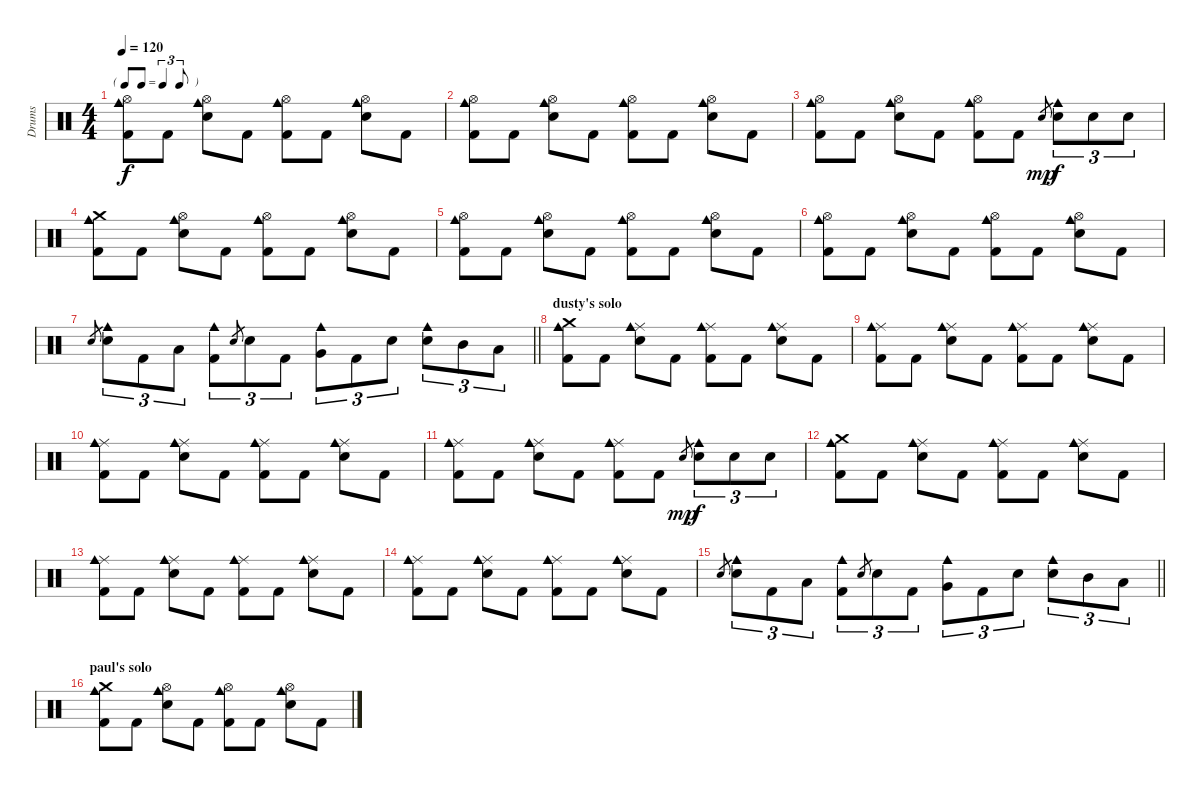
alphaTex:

\track ("Drums" "Drums") {instrument percussion}
\staff {score}
\articulation defaults
\ts (4 4)
\tf triplet8th
\tempo 120
\clef neutral
\ks c
("Hi-Hat (open)" "Cowbell medium (hit)" "Kick (hit) 2").8{dy f} "Kick (hit) 2".8 ("Hi-Hat (open)" "Cowbell medium (hit)" "Electric Snare (hit)").8 "Kick (hit) 2".8 ("Hi-Hat (open)" "Cowbell medium (hit)" "Kick (hit) 2").8 "Kick (hit) 2".8 ("Hi-Hat (open)" "Cowbell medium (hit)" "Electric Snare (hit)").8 "Kick (hit) 2".8 |
("Hi-Hat (open)" "Cowbell medium (hit)" "Kick (hit) 2").8 "Kick (hit) 2".8 ("Hi-Hat (open)" "Cowbell medium (hit)" "Electric Snare (hit)").8 "Kick (hit) 2".8 ("Hi-Hat (open)" "Cowbell medium (hit)" "Kick (hit) 2").8 "Kick (hit) 2".8 ("Hi-Hat (open)" "Cowbell medium (hit)" "Electric Snare (hit)").8 "Kick (hit) 2".8 |
("Hi-Hat (open)" "Cowbell medium (hit)" "Kick (hit) 2").8 "Kick (hit) 2".8 ("Hi-Hat (open)" "Cowbell medium (hit)" "Electric Snare (hit)").8 "Kick (hit) 2".8 ("Hi-Hat (open)" "Cowbell medium (hit)" "Kick (hit) 2").8 "Kick (hit) 2".8 "Electric Snare (hit)".8{gr dy mp} ("Cowbell medium (hit)" "Electric Snare (hit)").8{tu (3 2) dy f} "Electric Snare (hit)".8{tu (3 2)} "Electric Snare (hit)".8{tu (3 2)} |
("Crash medium (hit)" "Cowbell medium (hit)" "Kick (hit) 2").8 "Kick (hit) 2".8 ("Hi-Hat (open)" "Cowbell medium (hit)" "Electric Snare (hit)").8 "Kick (hit) 2".8 ("Hi-Hat (open)" "Cowbell medium (hit)" "Kick (hit) 2").8 "Kick (hit) 2".8 ("Hi-Hat (open)" "Cowbell medium (hit)" "Electric Snare (hit)").8 "Kick (hit) 2".8 |
("Hi-Hat (open)" "Cowbell medium (hit)" "Kick (hit) 2").8 "Kick (hit) 2".8 ("Hi-Hat (open)" "Cowbell medium (hit)" "Electric Snare (hit)").8 "Kick (hit) 2".8 ("Hi-Hat (open)" "Cowbell medium (hit)" "Kick (hit) 2").8 "Kick (hit) 2".8 ("Hi-Hat (open)" "Cowbell medium (hit)" "Electric Snare (hit)").8 "Kick (hit) 2".8 |
("Hi-Hat (open)" "Cowbell medium (hit)" "Kick (hit) 2").8 "Kick (hit) 2".8 ("Hi-Hat (open)" "Cowbell medium (hit)" "Electric Snare (hit)").8 "Kick (hit) 2".8 ("Hi-Hat (open)" "Cowbell medium (hit)" "Kick (hit) 2").8 "Kick (hit) 2".8 ("Hi-Hat (open)" "Cowbell medium (hit)" "Electric Snare (hit)").8 "Kick (hit) 2".8 |
\barLineRight lightlight "Electric Snare (hit)".8{gr}
("Cowbell medium (hit)" "Electric Snare (hit)").8{tu (3 2)} "Kick (hit) 2".8{tu (3 2)} "Low Tom (hit)".8{tu (3 2)} ("Cowbell medium (hit)" "Kick (hit) 2").8{tu (3 2)} "Electric Snare (hit)".8{gr} "Electric Snare (hit)".8{tu (3 2)} "Kick (hit) 2".8{tu (3 2)} ("Cowbell medium (hit)" "Very Low Tom (hit)").8{tu (3 2)} "Kick (hit) 2".8{tu (3 2)} "Electric Snare (hit)".8{tu (3 2)} ("Cowbell medium (hit)" "Electric Snare (hit)").8{tu (3 2)} "Mid Tom (hit)".8{tu (3 2)} "Low Tom (hit)".8{tu (3 2)} |
\section ("" "dusty's solo")
("Crash medium (hit)" "Cowbell medium (hit)" "Kick (hit) 2").8 "Kick (hit) 2".8 ("Ride (middle)" "Cowbell medium (hit)" "Electric Snare (hit)").8 "Kick (hit) 2".8 ("Ride (middle)" "Cowbell medium (hit)" "Kick (hit) 2").8 "Kick (hit) 2".8 ("Ride (middle)" "Cowbell medium (hit)" "Electric Snare (hit)").8 "Kick (hit) 2".8 |
("Ride (middle)" "Cowbell medium (hit)" "Kick (hit) 2").8 "Kick (hit) 2".8 ("Ride (middle)" "Cowbell medium (hit)" "Electric Snare (hit)").8 "Kick (hit) 2".8 ("Ride (middle)" "Cowbell medium (hit)" "Kick (hit) 2").8 "Kick (hit) 2".8 ("Ride (middle)" "Cowbell medium (hit)" "Electric Snare (hit)").8 "Kick (hit) 2".8 |
("Ride (middle)" "Cowbell medium (hit)" "Kick (hit) 2").8 "Kick (hit) 2".8 ("Ride (middle)" "Cowbell medium (hit)" "Electric Snare (hit)").8 "Kick (hit) 2".8 ("Ride (middle)" "Cowbell medium (hit)" "Kick (hit) 2").8 "Kick (hit) 2".8 ("Ride (middle)" "Cowbell medium (hit)" "Electric Snare (hit)").8 "Kick (hit) 2".8 |
("Ride (middle)" "Cowbell medium (hit)" "Kick (hit) 2").8 "Kick (hit) 2".8 ("Ride (middle)" "Cowbell medium (hit)" "Electric Snare (hit)").8 "Kick (hit) 2".8 ("Ride (middle)" "Cowbell medium (hit)" "Kick (hit) 2").8 "Kick (hit) 2".8 "Electric Snare (hit)".8{gr dy mp} ("Cowbell medium (hit)" "Electric Snare (hit)").8{tu (3 2) dy f} "Electric Snare (hit)".8{tu (3 2)} "Electric Snare (hit)".8{tu (3 2)} |
("Crash medium (hit)" "Cowbell medium (hit)" "Kick (hit) 2").8 "Kick (hit) 2".8 ("Ride (middle)" "Cowbell medium (hit)" "Electric Snare (hit)").8 "Kick (hit) 2".8 ("Ride (middle)" "Cowbell medium (hit)" "Kick (hit) 2").8 "Kick (hit) 2".8 ("Ride (middle)" "Cowbell medium (hit)" "Electric Snare (hit)").8 "Kick (hit) 2".8 |
("Ride (middle)" "Cowbell medium (hit)" "Kick (hit) 2").8 "Kick (hit) 2".8 ("Ride (middle)" "Cowbell medium (hit)" "Electric Snare (hit)").8 "Kick (hit) 2".8 ("Ride (middle)" "Cowbell medium (hit)" "Kick (hit) 2").8 "Kick (hit) 2".8 ("Ride (middle)" "Cowbell medium (hit)" "Electric Snare (hit)").8 "Kick (hit) 2".8 |
("Ride (middle)" "Cowbell medium (hit)" "Kick (hit) 2").8 "Kick (hit) 2".8 ("Ride (middle)" "Cowbell medium (hit)" "Electric Snare (hit)").8 "Kick (hit) 2".8 ("Ride (middle)" "Cowbell medium (hit)" "Kick (hit) 2").8 "Kick (hit) 2".8 ("Ride (middle)" "Cowbell medium (hit)" "Electric Snare (hit)").8 "Kick (hit) 2".8 |
\barLineRight lightlight "Electric Snare (hit)".8{gr}
("Cowbell medium (hit)" "Electric Snare (hit)").8{tu (3 2)} "Kick (hit) 2".8{tu (3 2)} "Low Tom (hit)".8{tu (3 2)} ("Cowbell medium (hit)" "Kick (hit) 2").8{tu (3 2)} "Electric Snare (hit)".8{gr} "Electric Snare (hit)".8{tu (3 2)} "Kick (hit) 2".8{tu (3 2)} ("Cowbell medium (hit)" "Very Low Tom (hit)").8{tu (3 2)} "Kick (hit) 2".8{tu (3 2)} "Electric Snare (hit)".8{tu (3 2)} ("Cowbell medium (hit)" "Electric Snare (hit)").8{tu (3 2)} "Mid Tom (hit)".8{tu (3 2)} "Low Tom (hit)".8{tu (3 2)} |
\section ("" "paul's solo")
("Crash medium (hit)" "Cowbell medium (hit)" "Kick (hit) 2").8 "Kick (hit) 2".8 ("Hi-Hat (open)" "Cowbell medium (hit)" "Electric Snare (hit)").8 "Kick (hit) 2".8 ("Hi-Hat (open)" "Cowbell medium (hit)" "Kick (hit) 2").8 "Kick (hit) 2".8 ("Hi-Hat (open)" "Cowbell medium (hit)" "Electric Snare (hit)").8 "Kick (hit) 2".8
